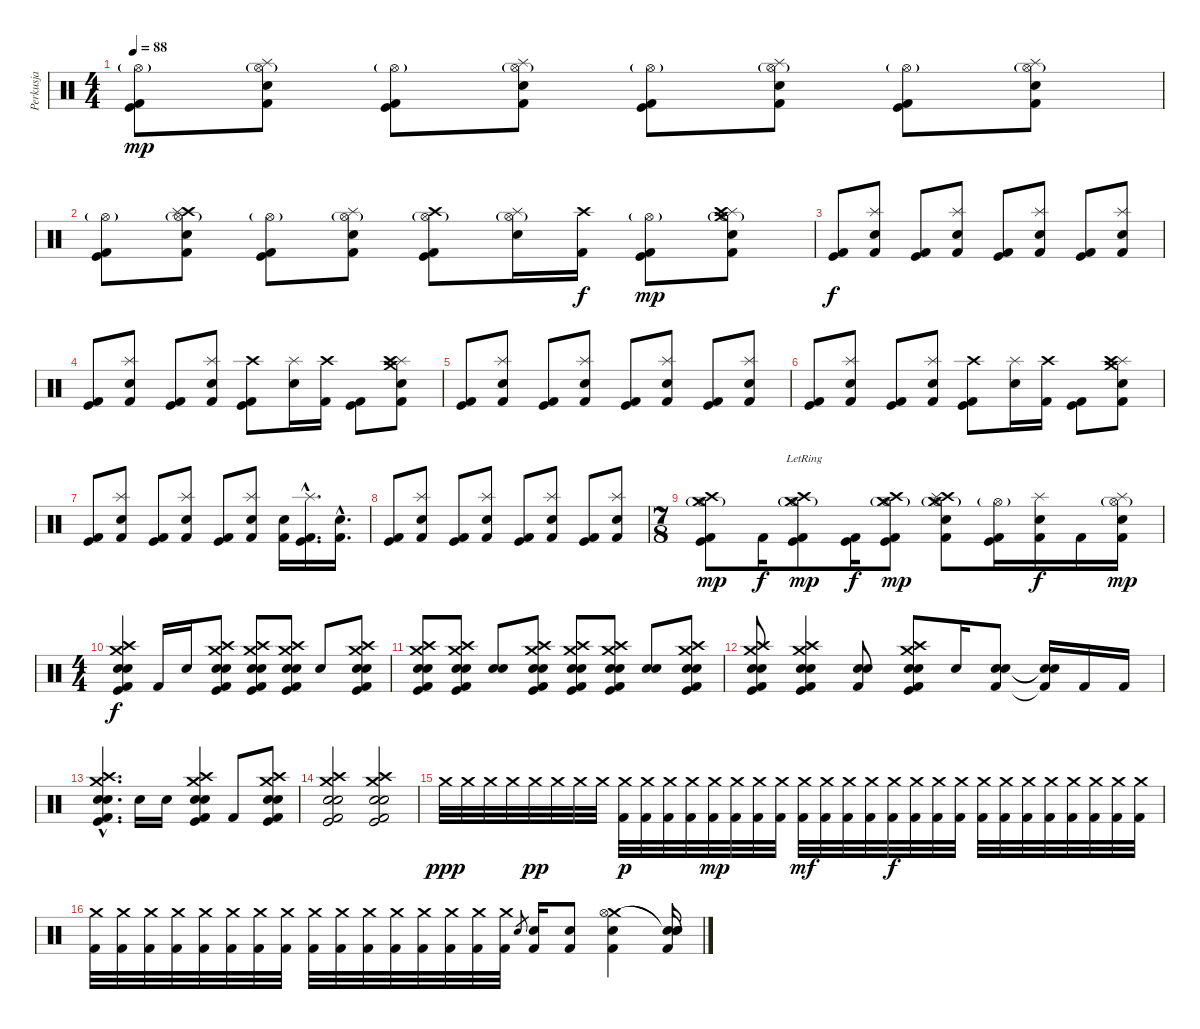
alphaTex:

\track ("Perkusja" "Perkusja") {instrument percussion}
\staff {score}
\articulation defaults
\ts (4 4)
\tempo 88
\clef neutral
\ks c
("Hi-Hat (open)"{g} "Kick (hit)" "Kick (hit) 2").8{dy mp} ("Hi-Hat (open)"{g} "Splash (hit)" "Electric Snare (hit)" "Kick (hit) 2").8 ("Hi-Hat (open)"{g} "Kick (hit)" "Kick (hit) 2").8 ("Hi-Hat (open)"{g} "Splash (hit)" "Electric Snare (hit)" "Kick (hit) 2").8 ("Hi-Hat (open)"{g} "Kick (hit)" "Kick (hit) 2").8 ("Hi-Hat (open)"{g} "Splash (hit)" "Electric Snare (hit)" "Kick (hit) 2").8 ("Hi-Hat (open)"{g} "Kick (hit)" "Kick (hit) 2").8 ("Hi-Hat (open)"{g} "Splash (hit)" "Electric Snare (hit)" "Kick (hit) 2").8 |
("Hi-Hat (open)"{g} "Kick (hit)" "Kick (hit) 2").8 ("Hi-Hat (open)"{g} "Crash high (hit)" "Splash (hit)" "Electric Snare (hit)" "Kick (hit) 2").8 ("Hi-Hat (open)"{g} "Kick (hit)" "Kick (hit) 2").8 ("Hi-Hat (open)"{g} "Splash (hit)" "Electric Snare (hit)" "Kick (hit) 2").8 ("Hi-Hat (open)"{g} "Crash high (hit)" "Kick (hit)" "Kick (hit) 2").8 ("Hi-Hat (open)"{g} "Splash (hit)" "Electric Snare (hit)").16 ("Crash high (hit)" "Kick (hit) 2").16{dy f} ("Hi-Hat (open)"{g} "Kick (hit)" "Kick (hit) 2").8{dy mp} ("Hi-Hat (open)"{g} "Crash medium (hit)" "Splash (hit)" "Crash high (hit)" "Electric Snare (hit)" "Kick (hit) 2").8 |
("Kick (hit)" "Kick (hit) 2").8{dy f} ("Splash (hit)" "Electric Snare (hit)" "Kick (hit) 2").8 ("Kick (hit)" "Kick (hit) 2").8 ("Splash (hit)" "Electric Snare (hit)" "Kick (hit) 2").8 ("Kick (hit)" "Kick (hit) 2").8 ("Splash (hit)" "Electric Snare (hit)" "Kick (hit) 2").8 ("Kick (hit)" "Kick (hit) 2").8 ("Splash (hit)" "Electric Snare (hit)" "Kick (hit) 2").8 |
("Kick (hit)" "Kick (hit) 2").8 ("Splash (hit)" "Electric Snare (hit)" "Kick (hit) 2").8 ("Kick (hit)" "Kick (hit) 2").8 ("Splash (hit)" "Electric Snare (hit)" "Kick (hit) 2").8 ("Crash high (hit)" "Kick (hit)" "Kick (hit) 2").8 ("Splash (hit)" "Electric Snare (hit)").16 ("Crash high (hit)" "Kick (hit) 2").16 ("Kick (hit)" "Kick (hit) 2").8 ("Crash medium (hit)" "Splash (hit)" "Crash high (hit)" "Electric Snare (hit)" "Kick (hit) 2").8 |
("Kick (hit)" "Kick (hit) 2").8 ("Splash (hit)" "Electric Snare (hit)" "Kick (hit) 2").8 ("Kick (hit)" "Kick (hit) 2").8 ("Splash (hit)" "Electric Snare (hit)" "Kick (hit) 2").8 ("Kick (hit)" "Kick (hit) 2").8 ("Splash (hit)" "Electric Snare (hit)" "Kick (hit) 2").8 ("Kick (hit)" "Kick (hit) 2").8 ("Splash (hit)" "Electric Snare (hit)" "Kick (hit) 2").8 |
("Kick (hit)" "Kick (hit) 2").8 ("Splash (hit)" "Electric Snare (hit)" "Kick (hit) 2").8 ("Kick (hit)" "Kick (hit) 2").8 ("Splash (hit)" "Electric Snare (hit)" "Kick (hit) 2").8 ("Crash high (hit)" "Kick (hit)" "Kick (hit) 2").8 ("Splash (hit)" "Electric Snare (hit)").16 ("Crash high (hit)" "Kick (hit) 2").16 ("Kick (hit)" "Kick (hit) 2").8 ("Crash medium (hit)" "Splash (hit)" "Crash high (hit)" "Electric Snare (hit)" "Kick (hit) 2").8 |
("Kick (hit)" "Kick (hit) 2").8 ("Splash (hit)" "Electric Snare (hit)" "Kick (hit) 2").8 ("Kick (hit)" "Kick (hit) 2").8 ("Splash (hit)" "Electric Snare (hit)" "Kick (hit) 2").8 ("Kick (hit)" "Kick (hit) 2").8 ("Splash (hit)" "Electric Snare (hit)" "Kick (hit) 2").8 ("Electric Snare (hit)" "Kick (hit) 2").16 ("Splash (hit)"{hac} "Kick (hit)"{hac} "Kick (hit) 2"{hac}).16{d} ("Electric Snare (hit)"{hac} "Kick (hit) 2"{hac}).16{d} |
("Kick (hit)" "Kick (hit) 2").8 ("Splash (hit)" "Electric Snare (hit)" "Kick (hit) 2").8 ("Kick (hit)" "Kick (hit) 2").8 ("Splash (hit)" "Electric Snare (hit)" "Kick (hit) 2").8 ("Kick (hit)" "Kick (hit) 2").8 ("Splash (hit)" "Electric Snare (hit)" "Kick (hit) 2").8 ("Kick (hit)" "Kick (hit) 2").8 ("Splash (hit)" "Electric Snare (hit)" "Kick (hit) 2").8 |
\ts (7 8)
("Hi-Hat (open)"{g} "Crash high (hit)" "Crash medium (hit)" "Kick (hit)" "Kick (hit) 2").8{dy mp} "Kick (hit) 2".16{dy f} ("Hi-Hat (open)"{g lr} "Crash high (hit)" "Crash medium (hit)" "Kick (hit)" "Kick (hit) 2").8{dy mp} ("Kick (hit) 2" "Kick (hit)").16{dy f} ("Hi-Hat (open)"{g} "Crash high (hit)" "Crash medium (hit)" "Kick (hit)" "Kick (hit) 2").8{dy mp} ("Hi-Hat (open)"{g} "Crash high (hit)" "Splash (hit)" "Crash medium (hit)" "Electric Snare (hit)" "Kick (hit) 2").8 ("Hi-Hat (open)"{g} "Kick (hit)" "Kick (hit) 2").16 ("Splash (hit)" "Electric Snare (hit)" "Kick (hit) 2").16{dy f} "Kick (hit) 2".16 ("Hi-Hat (open)"{g} "Splash (hit)" "Electric Snare (hit)" "Kick (hit) 2").16{dy mp} |
\ts (4 4)
("Crash high (hit)" "Crash medium (hit)" "Electric Snare (hit)" "Snare (hit) 2" "Kick (hit)" "Kick (hit) 2").4{dy f} "Kick (hit) 2".16 "Electric Snare (hit)".16 ("Crash high (hit)" "Crash medium (hit)" "Electric Snare (hit)" "Snare (hit) 2" "Kick (hit)" "Kick (hit) 2").8 ("Crash high (hit)" "Crash medium (hit)" "Electric Snare (hit)" "Snare (hit) 2" "Kick (hit)" "Kick (hit) 2").8 ("Crash high (hit)" "Crash medium (hit)" "Electric Snare (hit)" "Snare (hit) 2" "Kick (hit)" "Kick (hit) 2").8 "Electric Snare (hit)".8 ("Crash high (hit)" "Crash medium (hit)" "Electric Snare (hit)" "Snare (hit) 2" "Kick (hit)" "Kick (hit) 2").8 |
("Crash high (hit)" "Crash medium (hit)" "Electric Snare (hit)" "Snare (hit) 2" "Kick (hit)" "Kick (hit) 2").8 ("Crash high (hit)" "Crash medium (hit)" "Electric Snare (hit)" "Snare (hit) 2" "Kick (hit)" "Kick (hit) 2").8 ("Snare (hit) 2" "Electric Snare (hit)").8 ("Crash high (hit)" "Crash medium (hit)" "Electric Snare (hit)" "Snare (hit) 2" "Kick (hit)" "Kick (hit) 2").8 ("Crash high (hit)" "Crash medium (hit)" "Electric Snare (hit)" "Snare (hit) 2" "Kick (hit)" "Kick (hit) 2").8 ("Crash high (hit)" "Crash medium (hit)" "Electric Snare (hit)" "Snare (hit) 2" "Kick (hit)" "Kick (hit) 2").8 ("Snare (hit) 2" "Electric Snare (hit)").8 ("Crash high (hit)" "Crash medium (hit)" "Electric Snare (hit)" "Snare (hit) 2" "Kick (hit)" "Kick (hit) 2").8 |
("Crash high (hit)" "Crash medium (hit)" "Electric Snare (hit)" "Snare (hit) 2" "Kick (hit)" "Kick (hit) 2").8 ("Crash high (hit)" "Crash medium (hit)" "Electric Snare (hit)" "Snare (hit) 2" "Kick (hit)" "Kick (hit) 2").4 ("Snare (hit) 2" "Electric Snare (hit)" "Kick (hit) 2").8 ("Crash high (hit)" "Crash medium (hit)" "Electric Snare (hit)" "Snare (hit) 2" "Kick (hit)" "Kick (hit) 2").8 "Electric Snare (hit)".16 ("Snare (hit) 2" "Electric Snare (hit)" "Kick (hit) 2").8 ("Snare (hit)"{t} "Snare (hit)"{t} "Kick (hit) 2"{t}).16 "Kick (hit) 2".16 "Kick (hit) 2".16 |
("Crash high (hit)"{hac} "Crash medium (hit)"{hac} "Electric Snare (hit)"{hac} "Snare (hit) 2"{hac} "Kick (hit)"{hac} "Kick (hit) 2"{hac}).4{d} "Electric Snare (hit)".16 "Electric Snare (hit)".16 ("Crash high (hit)" "Crash medium (hit)" "Electric Snare (hit)" "Snare (hit) 2" "Kick (hit)" "Kick (hit) 2").4 "Kick (hit) 2".8 ("Crash high (hit)" "Crash medium (hit)" "Electric Snare (hit)" "Snare (hit) 2" "Kick (hit)" "Kick (hit) 2").8 |
("Crash high (hit)" "Crash medium (hit)" "Electric Snare (hit)" "Snare (hit) 2" "Kick (hit)" "Kick (hit) 2").2 ("Crash high (hit)" "Crash medium (hit)" "Electric Snare (hit)" "Snare (hit) 2" "Kick (hit)" "Kick (hit) 2").2 |
"Crash medium (hit)".32{dy ppp} "Crash medium (hit)".32 "Crash medium (hit)".32 "Crash medium (hit)".32 "Crash medium (hit)".32{dy pp} "Crash medium (hit)".32 "Crash medium (hit)".32 "Crash medium (hit)".32 ("Crash medium (hit)" "Kick (hit) 2").32{dy p} ("Crash medium (hit)" "Kick (hit) 2").32 ("Crash medium (hit)" "Kick (hit) 2").32 ("Crash medium (hit)" "Kick (hit) 2").32 ("Crash medium (hit)" "Kick (hit) 2").32{dy mp} ("Crash medium (hit)" "Kick (hit) 2").32 ("Crash medium (hit)" "Kick (hit) 2").32 ("Crash medium (hit)" "Kick (hit) 2").32 ("Crash medium (hit)" "Kick (hit) 2").32{dy mf} ("Crash medium (hit)" "Kick (hit) 2").32 ("Crash medium (hit)" "Kick (hit) 2").32 ("Crash medium (hit)" "Kick (hit) 2").32 ("Crash medium (hit)" "Kick (hit) 2").32{dy f} ("Crash medium (hit)" "Kick (hit) 2").32 ("Crash medium (hit)" "Kick (hit) 2").32 ("Crash medium (hit)" "Kick (hit) 2").32 ("Crash medium (hit)" "Kick (hit) 2").32 ("Crash medium (hit)" "Kick (hit) 2").32 ("Crash medium (hit)" "Kick (hit) 2").32 ("Crash medium (hit)" "Kick (hit) 2").32 ("Crash medium (hit)" "Kick (hit) 2").32 ("Crash medium (hit)" "Kick (hit) 2").32 ("Crash medium (hit)" "Kick (hit) 2").32 ("Crash medium (hit)" "Kick (hit) 2").32 |
("Crash medium (hit)" "Kick (hit) 2").32 ("Crash medium (hit)" "Kick (hit) 2").32 ("Crash medium (hit)" "Kick (hit) 2").32 ("Crash medium (hit)" "Kick (hit) 2").32 ("Crash medium (hit)" "Kick (hit) 2").32 ("Crash medium (hit)" "Kick (hit) 2").32 ("Crash medium (hit)" "Kick (hit) 2").32 ("Crash medium (hit)" "Kick (hit) 2").32 ("Crash medium (hit)" "Kick (hit) 2").32 ("Crash medium (hit)" "Kick (hit) 2").32 ("Crash medium (hit)" "Kick (hit) 2").32 ("Crash medium (hit)" "Kick (hit) 2").32 ("Crash medium (hit)" "Kick (hit) 2").32 ("Crash medium (hit)" "Kick (hit) 2").32 ("Crash medium (hit)" "Kick (hit) 2").32 ("Crash medium (hit)" "Kick (hit) 2").32 "Electric Snare (hit)".8{gr} ("Snare (hit) 2" "Kick (hit) 2").16 ("Electric Snare (hit)" "Kick (hit) 2").8 ("Crash medium (hit)" "Hi-Hat (open)" "Electric Snare (hit)" "Kick (hit) 2").4 ("Snare (hit)"{t} "Snare (hit)"{t} "Snare (hit) 2" "Kick (hit) 2").16
